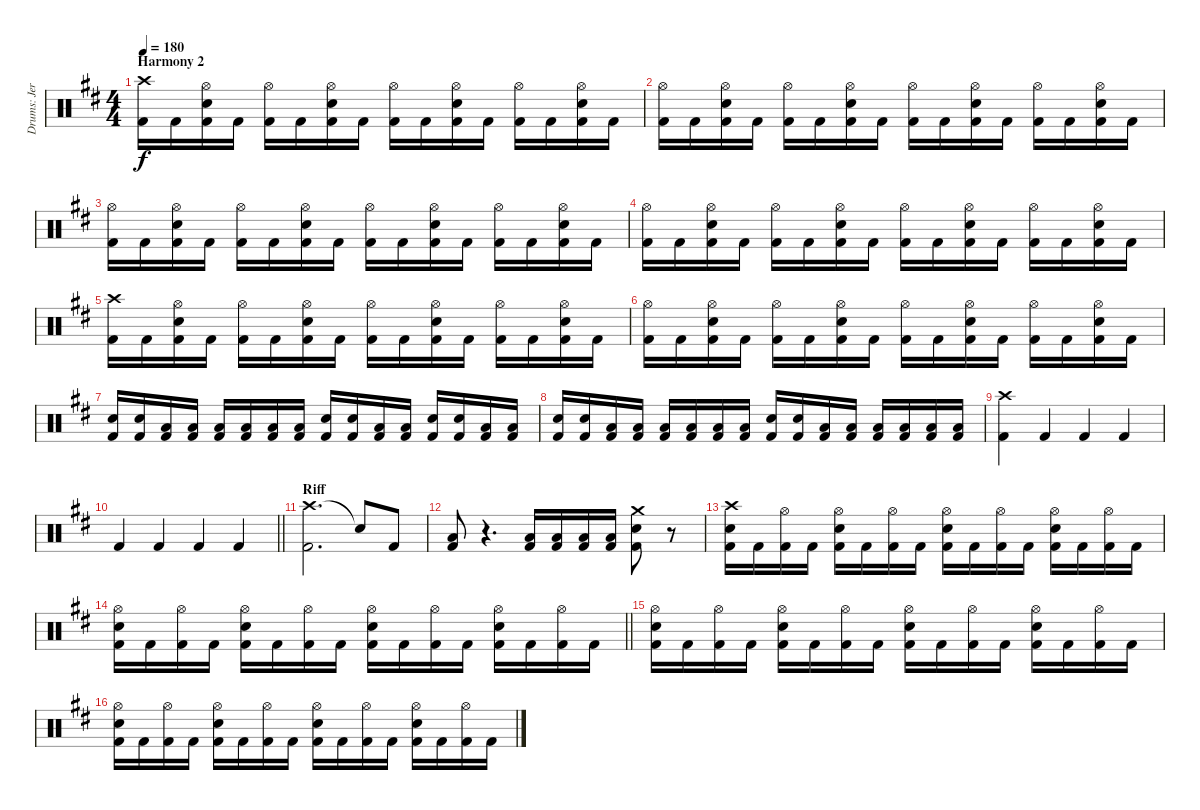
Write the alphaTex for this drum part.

\track ("Drums: Jere Luokkamäki" "Drums: Jer") {instrument percussion}
\staff {score}
\articulation defaults
\ts (4 4)
\section ("" "Harmony 2")
\tempo 180
\clef neutral
\ks bminor
("Crash high (hit)" "Kick (hit) 2").16{dy f} "Kick (hit) 2".16 ("Hi-Hat (open)" "Electric Snare (hit)" "Kick (hit) 2").16 "Kick (hit) 2".16 ("Hi-Hat (open)" "Kick (hit) 2").16 "Kick (hit) 2".16 ("Hi-Hat (open)" "Electric Snare (hit)" "Kick (hit) 2").16 "Kick (hit) 2".16 ("Hi-Hat (open)" "Kick (hit) 2").16 "Kick (hit) 2".16 ("Hi-Hat (open)" "Electric Snare (hit)" "Kick (hit) 2").16 "Kick (hit) 2".16 ("Hi-Hat (open)" "Kick (hit) 2").16 "Kick (hit) 2".16 ("Hi-Hat (open)" "Electric Snare (hit)" "Kick (hit) 2").16 "Kick (hit) 2".16 |
("Hi-Hat (open)" "Kick (hit) 2").16 "Kick (hit) 2".16 ("Hi-Hat (open)" "Electric Snare (hit)" "Kick (hit) 2").16 "Kick (hit) 2".16 ("Hi-Hat (open)" "Kick (hit) 2").16 "Kick (hit) 2".16 ("Hi-Hat (open)" "Electric Snare (hit)" "Kick (hit) 2").16 "Kick (hit) 2".16 ("Hi-Hat (open)" "Kick (hit) 2").16 "Kick (hit) 2".16 ("Hi-Hat (open)" "Electric Snare (hit)" "Kick (hit) 2").16 "Kick (hit) 2".16 ("Hi-Hat (open)" "Kick (hit) 2").16 "Kick (hit) 2".16 ("Hi-Hat (open)" "Electric Snare (hit)" "Kick (hit) 2").16 "Kick (hit) 2".16 |
("Hi-Hat (open)" "Kick (hit) 2").16 "Kick (hit) 2".16 ("Hi-Hat (open)" "Electric Snare (hit)" "Kick (hit) 2").16 "Kick (hit) 2".16 ("Hi-Hat (open)" "Kick (hit) 2").16 "Kick (hit) 2".16 ("Hi-Hat (open)" "Electric Snare (hit)" "Kick (hit) 2").16 "Kick (hit) 2".16 ("Hi-Hat (open)" "Kick (hit) 2").16 "Kick (hit) 2".16 ("Hi-Hat (open)" "Electric Snare (hit)" "Kick (hit) 2").16 "Kick (hit) 2".16 ("Hi-Hat (open)" "Kick (hit) 2").16 "Kick (hit) 2".16 ("Hi-Hat (open)" "Electric Snare (hit)" "Kick (hit) 2").16 "Kick (hit) 2".16 |
("Hi-Hat (open)" "Kick (hit) 2").16 "Kick (hit) 2".16 ("Hi-Hat (open)" "Electric Snare (hit)" "Kick (hit) 2").16 "Kick (hit) 2".16 ("Hi-Hat (open)" "Kick (hit) 2").16 "Kick (hit) 2".16 ("Hi-Hat (open)" "Electric Snare (hit)" "Kick (hit) 2").16 "Kick (hit) 2".16 ("Hi-Hat (open)" "Kick (hit) 2").16 "Kick (hit) 2".16 ("Hi-Hat (open)" "Electric Snare (hit)" "Kick (hit) 2").16 "Kick (hit) 2".16 ("Hi-Hat (open)" "Kick (hit) 2").16 "Kick (hit) 2".16 ("Hi-Hat (open)" "Electric Snare (hit)" "Kick (hit) 2").16 "Kick (hit) 2".16 |
("Crash high (hit)" "Kick (hit) 2").16 "Kick (hit) 2".16 ("Hi-Hat (open)" "Electric Snare (hit)" "Kick (hit) 2").16 "Kick (hit) 2".16 ("Hi-Hat (open)" "Kick (hit) 2").16 "Kick (hit) 2".16 ("Hi-Hat (open)" "Electric Snare (hit)" "Kick (hit) 2").16 "Kick (hit) 2".16 ("Hi-Hat (open)" "Kick (hit) 2").16 "Kick (hit) 2".16 ("Hi-Hat (open)" "Electric Snare (hit)" "Kick (hit) 2").16 "Kick (hit) 2".16 ("Hi-Hat (open)" "Kick (hit) 2").16 "Kick (hit) 2".16 ("Hi-Hat (open)" "Electric Snare (hit)" "Kick (hit) 2").16 "Kick (hit) 2".16 |
("Hi-Hat (open)" "Kick (hit) 2").16 "Kick (hit) 2".16 ("Hi-Hat (open)" "Electric Snare (hit)" "Kick (hit) 2").16 "Kick (hit) 2".16 ("Hi-Hat (open)" "Kick (hit) 2").16 "Kick (hit) 2".16 ("Hi-Hat (open)" "Electric Snare (hit)" "Kick (hit) 2").16 "Kick (hit) 2".16 ("Hi-Hat (open)" "Kick (hit) 2").16 "Kick (hit) 2".16 ("Hi-Hat (open)" "Electric Snare (hit)" "Kick (hit) 2").16 "Kick (hit) 2".16 ("Hi-Hat (open)" "Kick (hit) 2").16 "Kick (hit) 2".16 ("Hi-Hat (open)" "Electric Snare (hit)" "Kick (hit) 2").16 "Kick (hit) 2".16 |
("Electric Snare (hit)" "Kick (hit) 2").16 ("Electric Snare (hit)" "Kick (hit) 2").16 ("Low Tom (hit)" "Kick (hit) 2").16 ("Low Tom (hit)" "Kick (hit) 2").16 ("Low Tom (hit)" "Kick (hit) 2").16 ("Low Tom (hit)" "Kick (hit) 2").16 ("Low Tom (hit)" "Kick (hit) 2").16 ("Low Tom (hit)" "Kick (hit) 2").16 ("Electric Snare (hit)" "Kick (hit) 2").16 ("Electric Snare (hit)" "Kick (hit) 2").16 ("Low Tom (hit)" "Kick (hit) 2").16 ("Low Tom (hit)" "Kick (hit) 2").16 ("Electric Snare (hit)" "Kick (hit) 2").16 ("Electric Snare (hit)" "Kick (hit) 2").16 ("Low Tom (hit)" "Kick (hit) 2").16 ("Low Tom (hit)" "Kick (hit) 2").16 |
("Electric Snare (hit)" "Kick (hit) 2").16 ("Electric Snare (hit)" "Kick (hit) 2").16 ("Low Tom (hit)" "Kick (hit) 2").16 ("Low Tom (hit)" "Kick (hit) 2").16 ("Low Tom (hit)" "Kick (hit) 2").16 ("Low Tom (hit)" "Kick (hit) 2").16 ("Low Tom (hit)" "Kick (hit) 2").16 ("Low Tom (hit)" "Kick (hit) 2").16 ("Electric Snare (hit)" "Kick (hit) 2").16 ("Electric Snare (hit)" "Kick (hit) 2").16 ("Low Tom (hit)" "Kick (hit) 2").16 ("Low Tom (hit)" "Kick (hit) 2").16 ("Low Tom (hit)" "Kick (hit) 2").16 ("Low Tom (hit)" "Kick (hit) 2").16 ("Low Tom (hit)" "Kick (hit) 2").16 ("Low Tom (hit)" "Kick (hit) 2").16 |
("Crash high (hit)" "Kick (hit) 2").4 "Kick (hit) 2".4 "Kick (hit) 2".4 "Kick (hit) 2".4 |
\barLineRight lightlight "Kick (hit) 2".4 "Kick (hit) 2".4 "Kick (hit) 2".4 "Kick (hit) 2".4
|
\section ("" "Riff")
("Crash high (hit)" "Kick (hit) 2").2{d} "Snare (hit)"{t}.8 "Kick (hit) 2".8 |
("Low Tom (hit)" "Kick (hit) 2").8 r.4{d} ("Low Tom (hit)" "Kick (hit) 2").16 ("Low Tom (hit)" "Kick (hit) 2").16 ("Low Tom (hit)" "Kick (hit) 2").16 ("Low Tom (hit)" "Kick (hit) 2").16 ("Crash medium (hit)" "Electric Snare (hit)" "Kick (hit) 2").8 r.8 |
("Crash high (hit)" "Electric Snare (hit)" "Kick (hit) 2").16 "Kick (hit) 2".16 ("Hi-Hat (open)" "Kick (hit) 2").16 "Kick (hit) 2".16 ("Hi-Hat (open)" "Electric Snare (hit)" "Kick (hit) 2").16 "Kick (hit) 2".16 ("Hi-Hat (open)" "Kick (hit) 2").16 "Kick (hit) 2".16 ("Hi-Hat (open)" "Electric Snare (hit)" "Kick (hit) 2").16 "Kick (hit) 2".16 ("Hi-Hat (open)" "Kick (hit) 2").16 "Kick (hit) 2".16 ("Hi-Hat (open)" "Electric Snare (hit)" "Kick (hit) 2").16 "Kick (hit) 2".16 ("Hi-Hat (open)" "Kick (hit) 2").16 "Kick (hit) 2".16 |
\barLineRight lightlight
("Hi-Hat (open)" "Electric Snare (hit)" "Kick (hit) 2").16 "Kick (hit) 2".16 ("Hi-Hat (open)" "Kick (hit) 2").16 "Kick (hit) 2".16 ("Hi-Hat (open)" "Electric Snare (hit)" "Kick (hit) 2").16 "Kick (hit) 2".16 ("Hi-Hat (open)" "Kick (hit) 2").16 "Kick (hit) 2".16 ("Hi-Hat (open)" "Electric Snare (hit)" "Kick (hit) 2").16 "Kick (hit) 2".16 ("Hi-Hat (open)" "Kick (hit) 2").16 "Kick (hit) 2".16 ("Hi-Hat (open)" "Electric Snare (hit)" "Kick (hit) 2").16 "Kick (hit) 2".16 ("Hi-Hat (open)" "Kick (hit) 2").16 "Kick (hit) 2".16 |
("Hi-Hat (open)" "Electric Snare (hit)" "Kick (hit) 2").16 "Kick (hit) 2".16 ("Hi-Hat (open)" "Kick (hit) 2").16 "Kick (hit) 2".16 ("Hi-Hat (open)" "Electric Snare (hit)" "Kick (hit) 2").16 "Kick (hit) 2".16 ("Hi-Hat (open)" "Kick (hit) 2").16 "Kick (hit) 2".16 ("Hi-Hat (open)" "Electric Snare (hit)" "Kick (hit) 2").16 "Kick (hit) 2".16 ("Hi-Hat (open)" "Kick (hit) 2").16 "Kick (hit) 2".16 ("Hi-Hat (open)" "Electric Snare (hit)" "Kick (hit) 2").16 "Kick (hit) 2".16 ("Hi-Hat (open)" "Kick (hit) 2").16 "Kick (hit) 2".16 |
("Hi-Hat (open)" "Electric Snare (hit)" "Kick (hit) 2").16 "Kick (hit) 2".16 ("Hi-Hat (open)" "Kick (hit) 2").16 "Kick (hit) 2".16 ("Hi-Hat (open)" "Electric Snare (hit)" "Kick (hit) 2").16 "Kick (hit) 2".16 ("Hi-Hat (open)" "Kick (hit) 2").16 "Kick (hit) 2".16 ("Hi-Hat (open)" "Electric Snare (hit)" "Kick (hit) 2").16 "Kick (hit) 2".16 ("Hi-Hat (open)" "Kick (hit) 2").16 "Kick (hit) 2".16 ("Hi-Hat (open)" "Electric Snare (hit)" "Kick (hit) 2").16 "Kick (hit) 2".16 ("Hi-Hat (open)" "Kick (hit) 2").16 "Kick (hit) 2".16
